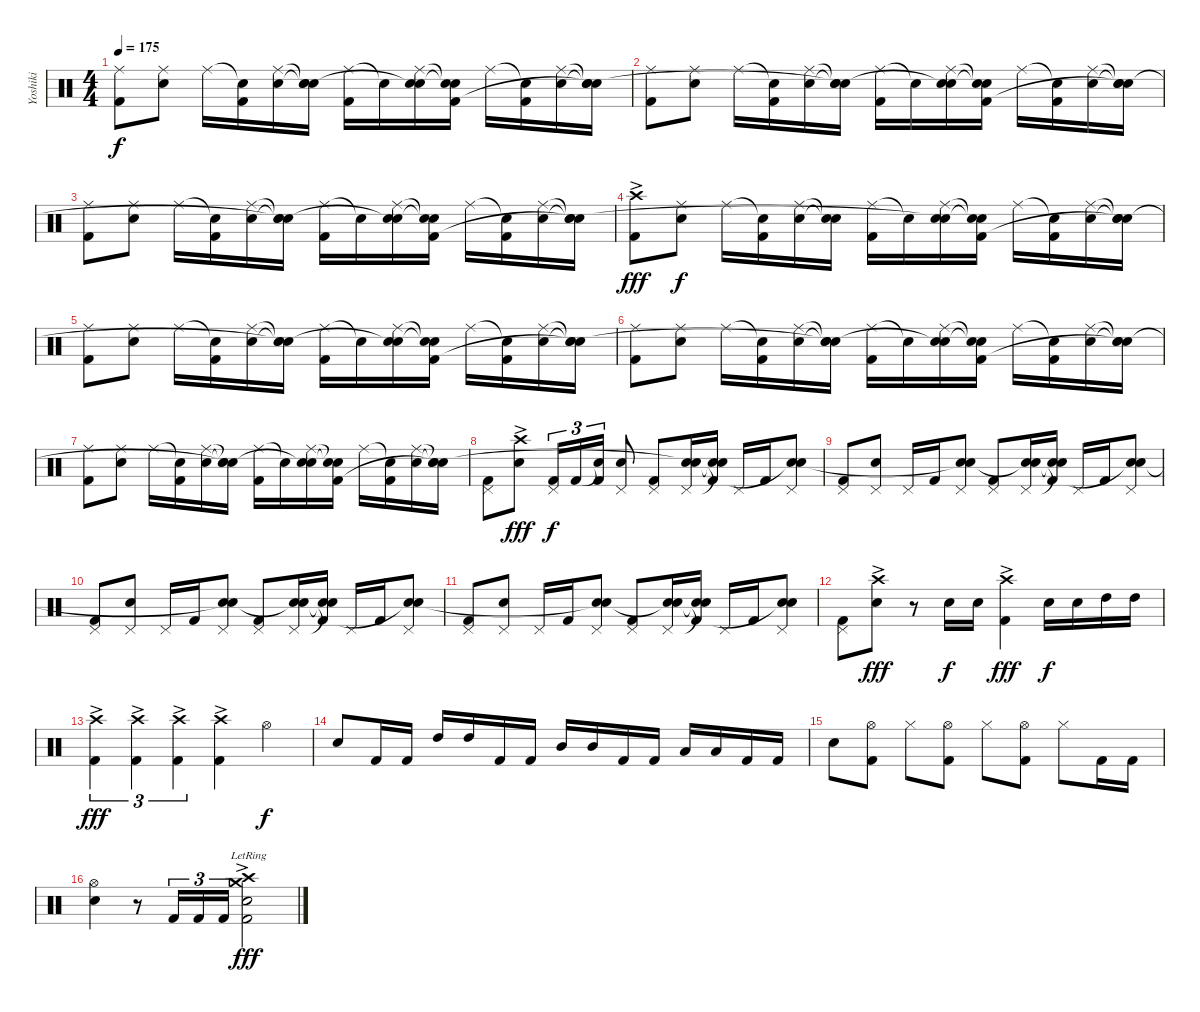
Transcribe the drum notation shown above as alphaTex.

\track ("Yoshiki" "Yoshiki") {instrument percussion}
\staff {score}
\articulation defaults
\ts (4 4)
\tempo 175
\clef neutral
\ks c
("Ride (middle)" "Kick (hit) 2").8{dy f} ("Ride (middle)" "Snare (hit) 2").8 "Ride (middle)".16 ("Snare (hit)"{t} "Kick (hit) 2").16 ("Ride (middle)" "Snare (hit) 2").16 ("Snare (hit)"{t} "Snare (hit)"{t} "Snare (hit)"{t}).16 ("Ride (middle)" "Kick (hit) 2").16 "Snare (hit)"{t}.16 ("Ride (middle)" "Snare (hit) 2" "Snare (hit)"{t}).16 ("Snare (hit)"{t} "Snare (hit)"{t} "Kick (hit) 2").16 "Ride (middle)".16 ("Snare (hit)"{t} "Kick (hit) 2").16 ("Ride (middle)" "Snare (hit) 2").16 ("Snare (hit)"{t} "Snare (hit)"{t} "Snare (hit)"{t}).16 |
("Ride (middle)" "Kick (hit) 2").8 ("Ride (middle)" "Snare (hit) 2").8 "Ride (middle)".16 ("Snare (hit)"{t} "Kick (hit) 2").16 ("Ride (middle)" "Snare (hit) 2").16 ("Snare (hit)"{t} "Snare (hit)"{t} "Snare (hit)"{t}).16 ("Ride (middle)" "Kick (hit) 2").16 "Snare (hit)"{t}.16 ("Ride (middle)" "Snare (hit) 2" "Snare (hit)"{t}).16 ("Snare (hit)"{t} "Snare (hit)"{t} "Kick (hit) 2").16 "Ride (middle)".16 ("Snare (hit)"{t} "Kick (hit) 2").16 ("Ride (middle)" "Snare (hit) 2").16 ("Snare (hit)"{t} "Snare (hit)"{t} "Snare (hit)"{t}).16 |
("Ride (middle)" "Kick (hit) 2").8 ("Ride (middle)" "Snare (hit) 2").8 "Ride (middle)".16 ("Snare (hit)"{t} "Kick (hit) 2").16 ("Ride (middle)" "Snare (hit) 2").16 ("Snare (hit)"{t} "Snare (hit)"{t} "Snare (hit)"{t}).16 ("Ride (middle)" "Kick (hit) 2").16 "Snare (hit)"{t}.16 ("Ride (middle)" "Snare (hit) 2" "Snare (hit)"{t}).16 ("Snare (hit)"{t} "Snare (hit)"{t} "Kick (hit) 2").16 "Ride (middle)".16 ("Snare (hit)"{t} "Kick (hit) 2").16 ("Ride (middle)" "Snare (hit) 2").16 ("Snare (hit)"{t} "Snare (hit)"{t} "Snare (hit)"{t}).16 |
("Crash high (hit)"{ac} "Kick (hit) 2"{ac}).8{dy fff} ("Ride (middle)" "Snare (hit) 2").8{dy f} "Ride (middle)".16 ("Snare (hit)"{t} "Kick (hit) 2").16 ("Ride (middle)" "Snare (hit) 2").16 ("Snare (hit)"{t} "Snare (hit)"{t}).16 ("Ride (middle)" "Kick (hit) 2").16 "Snare (hit)"{t}.16 ("Ride (middle)" "Snare (hit) 2" "Snare (hit)"{t}).16 ("Snare (hit)"{t} "Snare (hit)"{t} "Kick (hit) 2").16 "Ride (middle)".16 ("Snare (hit)"{t} "Kick (hit) 2").16 ("Ride (middle)" "Snare (hit) 2").16 ("Snare (hit)"{t} "Snare (hit)"{t} "Snare (hit)"{t}).16 |
("Ride (middle)" "Kick (hit) 2").8 ("Ride (middle)" "Snare (hit) 2").8 "Ride (middle)".16 ("Snare (hit)"{t} "Kick (hit) 2").16 ("Ride (middle)" "Snare (hit) 2").16 ("Snare (hit)"{t} "Snare (hit)"{t} "Snare (hit)"{t}).16 ("Ride (middle)" "Kick (hit) 2").16 "Snare (hit)"{t}.16 ("Ride (middle)" "Snare (hit) 2" "Snare (hit)"{t}).16 ("Snare (hit)"{t} "Snare (hit)"{t} "Kick (hit) 2").16 "Ride (middle)".16 ("Snare (hit)"{t} "Kick (hit) 2").16 ("Ride (middle)" "Snare (hit) 2").16 ("Snare (hit)"{t} "Snare (hit)"{t} "Snare (hit)"{t}).16 |
("Ride (middle)" "Kick (hit) 2").8 ("Ride (middle)" "Snare (hit) 2").8 "Ride (middle)".16 ("Snare (hit)"{t} "Kick (hit) 2").16 ("Ride (middle)" "Snare (hit) 2").16 ("Snare (hit)"{t} "Snare (hit)"{t} "Snare (hit)"{t}).16 ("Ride (middle)" "Kick (hit) 2").16 "Snare (hit)"{t}.16 ("Ride (middle)" "Snare (hit) 2" "Snare (hit)"{t}).16 ("Snare (hit)"{t} "Snare (hit)"{t} "Kick (hit) 2").16 "Ride (middle)".16 ("Snare (hit)"{t} "Kick (hit) 2").16 ("Ride (middle)" "Snare (hit) 2").16 ("Snare (hit)"{t} "Snare (hit)"{t} "Snare (hit)"{t}).16 |
("Ride (middle)" "Kick (hit) 2").8 ("Ride (middle)" "Snare (hit) 2").8 "Ride (middle)".16 ("Snare (hit)"{t} "Kick (hit) 2").16 ("Ride (middle)" "Snare (hit) 2").16 ("Snare (hit)"{t} "Snare (hit)"{t} "Snare (hit)"{t}).16 ("Ride (middle)" "Kick (hit) 2").16 "Snare (hit)"{t}.16 ("Ride (middle)" "Snare (hit) 2" "Snare (hit)"{t}).16 ("Snare (hit)"{t} "Snare (hit)"{t} "Kick (hit) 2").16 "Ride (middle)".16 ("Snare (hit)"{t} "Kick (hit) 2").16 ("Ride (middle)" "Snare (hit) 2").16 ("Snare (hit)"{t} "Snare (hit)"{t} "Snare (hit)"{t}).16 |
("Pedal Hi-Hat (hit)" "Kick (hit) 2").8 ("Crash high (hit)"{ac} "Snare (hit) 2"{ac}).8{dy fff} ("Pedal Hi-Hat (hit)" "Kick (hit) 2").16{tu (3 2) dy f} "Kick (hit) 2".16{tu (3 2)} ("Snare (hit)"{t} "Kick (hit) 2").16{tu (3 2)} ("Pedal Hi-Hat (hit)" "Snare (hit) 2").8 ("Pedal Hi-Hat (hit)" "Kick (hit) 2").8 ("Pedal Hi-Hat (hit)" "Snare (hit) 2" "Snare (hit)"{t}).16 ("Snare (hit)"{t} "Snare (hit)"{t} "Kick (hit) 2").16 "Pedal Hi-Hat (hit)".16 "Kick (hit) 2".16 ("Pedal Hi-Hat (hit)" "Snare (hit) 2" "Snare (hit)"{t}).8 |
("Pedal Hi-Hat (hit)" "Kick (hit) 2").8 ("Pedal Hi-Hat (hit)" "Snare (hit) 2").8 "Pedal Hi-Hat (hit)".16 "Kick (hit) 2".16 ("Pedal Hi-Hat (hit)" "Snare (hit) 2" "Snare (hit)"{t}).8 ("Pedal Hi-Hat (hit)" "Kick (hit) 2").8 ("Pedal Hi-Hat (hit)" "Snare (hit) 2" "Snare (hit)"{t}).16 ("Snare (hit)"{t} "Snare (hit)"{t} "Kick (hit) 2").16 "Pedal Hi-Hat (hit)".16 "Kick (hit) 2".16 ("Pedal Hi-Hat (hit)" "Snare (hit) 2" "Snare (hit)"{t}).8 |
("Pedal Hi-Hat (hit)" "Kick (hit) 2").8 ("Pedal Hi-Hat (hit)" "Snare (hit) 2").8 "Pedal Hi-Hat (hit)".16 "Kick (hit) 2".16 ("Pedal Hi-Hat (hit)" "Snare (hit) 2" "Snare (hit)"{t}).8 ("Pedal Hi-Hat (hit)" "Kick (hit) 2").8 ("Pedal Hi-Hat (hit)" "Snare (hit) 2" "Snare (hit)"{t}).16 ("Snare (hit)"{t} "Snare (hit)"{t} "Kick (hit) 2").16 "Pedal Hi-Hat (hit)".16 "Kick (hit) 2".16 ("Pedal Hi-Hat (hit)" "Snare (hit) 2" "Snare (hit)"{t}).8 |
("Pedal Hi-Hat (hit)" "Kick (hit) 2").8 ("Pedal Hi-Hat (hit)" "Snare (hit) 2").8 "Pedal Hi-Hat (hit)".16 "Kick (hit) 2".16 ("Pedal Hi-Hat (hit)" "Snare (hit) 2" "Snare (hit)"{t}).8 ("Pedal Hi-Hat (hit)" "Kick (hit) 2").8 ("Pedal Hi-Hat (hit)" "Snare (hit) 2" "Snare (hit)"{t}).16 ("Snare (hit)"{t} "Snare (hit)"{t} "Kick (hit) 2").16 "Pedal Hi-Hat (hit)".16 "Kick (hit) 2".16 ("Pedal Hi-Hat (hit)" "Snare (hit) 2" "Snare (hit)"{t}).8 |
("Pedal Hi-Hat (hit)" "Kick (hit) 2").8 ("Crash high (hit)"{ac} "Snare (hit) 2"{ac}).8{dy fff} r.8 "Snare (hit) 2".16{dy f} "Snare (hit) 2".16 ("Crash high (hit)"{ac} "Kick (hit) 2"{ac}).4{dy fff} "Snare (hit) 2".16{dy f} "Snare (hit) 2".16 "High Tom (hit)".16 "High Tom (hit)".16 |
("Crash high (hit)"{ac} "Kick (hit) 2"{ac}).4{tu (3 2) dy fff} ("Crash high (hit)"{ac} "Kick (hit) 2"{ac}).4{tu (3 2)} ("Crash high (hit)"{ac} "Kick (hit) 2"{ac}).4{tu (3 2)} ("Crash high (hit)"{ac} "Kick (hit) 2"{ac}).4 "Hi-Hat (open)".4{dy f} |
"Snare (hit) 2".8 "Kick (hit) 2".16 "Kick (hit) 2".16 "High Tom (hit)".16 "High Tom (hit)".16 "Kick (hit) 2".16 "Kick (hit) 2".16 "Mid Tom (hit)".16 "Mid Tom (hit)".16 "Kick (hit) 2".16 "Kick (hit) 2".16 "Low Tom (hit)".16 "Low Tom (hit)".16 "Kick (hit) 2".16 "Kick (hit) 2".16 |
"Snare (hit) 2".8 ("Hi-Hat (open)" "Kick (hit) 2").8 "Hi-Hat (closed)".8 ("Hi-Hat (open)" "Kick (hit) 2").8 "Hi-Hat (closed)".8 ("Hi-Hat (open)" "Kick (hit) 2").8 "Hi-Hat (closed)".8 "Kick (hit) 2".16 "Kick (hit) 2".16 |
("Hi-Hat (open)" "Snare (hit) 2").4 r.8 "Kick (hit) 2".16{tu (3 2)} "Kick (hit) 2".16{tu (3 2)} "Kick (hit) 2".16{tu (3 2)} ("Crash high (hit)"{ac lr} "Crash medium (hit)"{ac lr} "Snare (hit) 2"{ac lr} "Kick (hit) 2"{ac lr}).2{dy fff}
